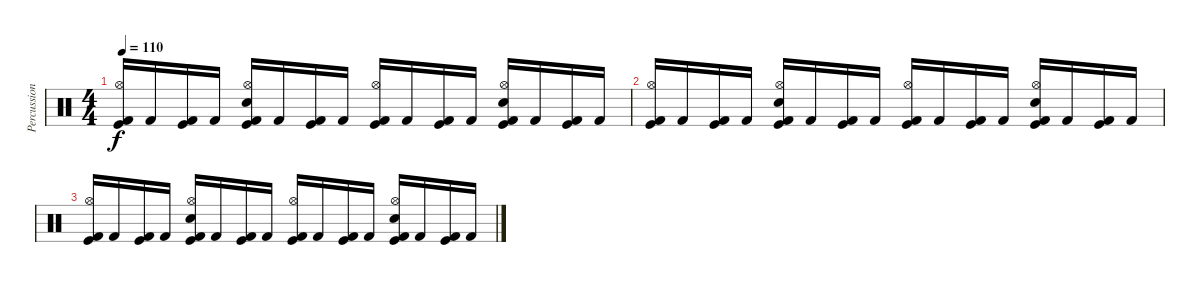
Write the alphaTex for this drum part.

\track ("Percussion" "Percussion") {instrument percussion}
\staff {score}
\articulation defaults
\ts (4 4)
\tempo 110
\clef neutral
\ks c
("Kick (hit)" "Hi-Hat (open)" "Kick (hit) 2").16{dy f} "Kick (hit) 2".16 ("Kick (hit)" "Kick (hit) 2").16 "Kick (hit) 2".16 ("Kick (hit)" "Hi-Hat (open)" "Electric Snare (hit)" "Kick (hit) 2").16 "Kick (hit) 2".16 ("Kick (hit)" "Kick (hit) 2").16 "Kick (hit) 2".16 ("Kick (hit)" "Hi-Hat (open)" "Kick (hit) 2").16 "Kick (hit) 2".16 ("Kick (hit)" "Kick (hit) 2").16 "Kick (hit) 2".16 ("Kick (hit)" "Hi-Hat (open)" "Electric Snare (hit)" "Kick (hit) 2").16 "Kick (hit) 2".16 ("Kick (hit)" "Kick (hit) 2").16 "Kick (hit) 2".16 |
("Kick (hit)" "Hi-Hat (open)" "Kick (hit) 2").16 "Kick (hit) 2".16 ("Kick (hit)" "Kick (hit) 2").16 "Kick (hit) 2".16 ("Kick (hit)" "Hi-Hat (open)" "Electric Snare (hit)" "Kick (hit) 2").16 "Kick (hit) 2".16 ("Kick (hit)" "Kick (hit) 2").16 "Kick (hit) 2".16 ("Kick (hit)" "Hi-Hat (open)" "Kick (hit) 2").16 "Kick (hit) 2".16 ("Kick (hit)" "Kick (hit) 2").16 "Kick (hit) 2".16 ("Kick (hit)" "Hi-Hat (open)" "Electric Snare (hit)" "Kick (hit) 2").16 "Kick (hit) 2".16 ("Kick (hit)" "Kick (hit) 2").16 "Kick (hit) 2".16 |
("Kick (hit)" "Hi-Hat (open)" "Kick (hit) 2").16 "Kick (hit) 2".16 ("Kick (hit)" "Kick (hit) 2").16 "Kick (hit) 2".16 ("Kick (hit)" "Hi-Hat (open)" "Electric Snare (hit)" "Kick (hit) 2").16 "Kick (hit) 2".16 ("Kick (hit)" "Kick (hit) 2").16 "Kick (hit) 2".16 ("Kick (hit)" "Hi-Hat (open)" "Kick (hit) 2").16 "Kick (hit) 2".16 ("Kick (hit)" "Kick (hit) 2").16 "Kick (hit) 2".16 ("Kick (hit)" "Hi-Hat (open)" "Electric Snare (hit)" "Kick (hit) 2").16 "Kick (hit) 2".16 ("Kick (hit)" "Kick (hit) 2").16 "Kick (hit) 2".16
